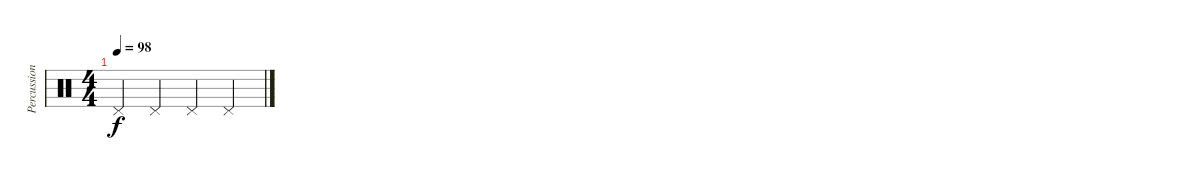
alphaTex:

\track ("Percussions" "Percussion") {instrument percussion}
\staff {score}
\articulation defaults
\ts (4 4)
\tempo 98
\clef neutral
\ks c "Pedal Hi-Hat (hit)".4{dy f} "Pedal Hi-Hat (hit)".4 "Pedal Hi-Hat (hit)".4 "Pedal Hi-Hat (hit)".4
